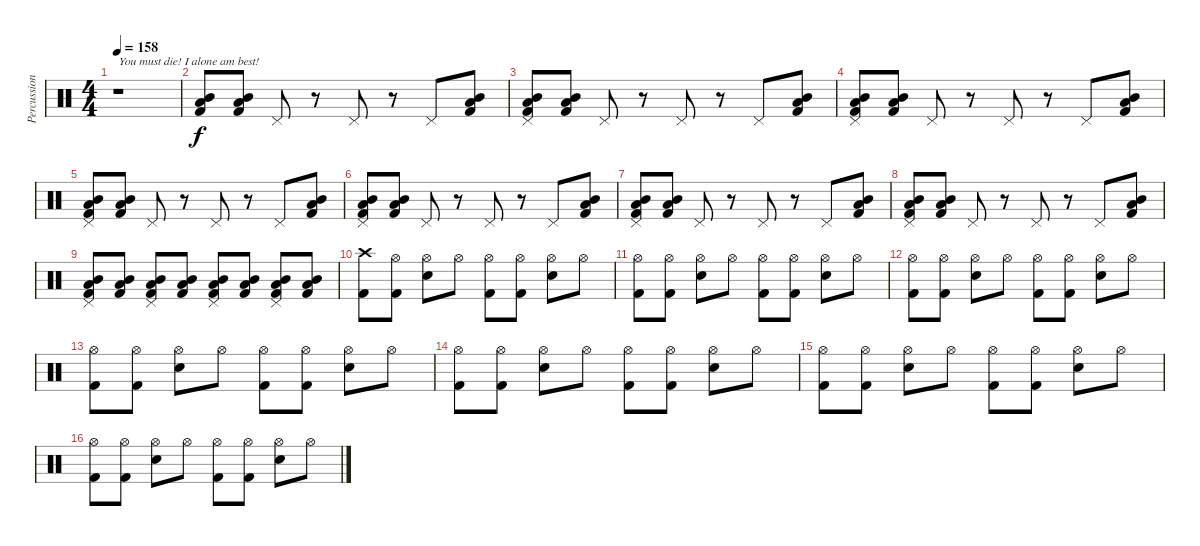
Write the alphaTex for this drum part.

\track ("Percussion" "Percussion") {instrument percussion}
\staff {score}
\articulation defaults
\ts (4 4)
\tempo 158
\clef neutral
\ks c
r.1{txt "You must die! I alone am best!" dy f} |
("Mid Tom (hit)" "Low Floor Tom (hit)" "Kick (hit) 2").8 ("Mid Tom (hit)" "Low Floor Tom (hit)" "Kick (hit) 2").8 "Pedal Hi-Hat (hit)".8 r.8 "Pedal Hi-Hat (hit)".8 r.8 "Pedal Hi-Hat (hit)".8 ("Mid Tom (hit)" "Low Floor Tom (hit)" "Kick (hit) 2").8 |
("Pedal Hi-Hat (hit)" "Mid Tom (hit)" "Low Floor Tom (hit)" "Kick (hit) 2").8 ("Mid Tom (hit)" "Low Floor Tom (hit)" "Kick (hit) 2").8 "Pedal Hi-Hat (hit)".8 r.8 "Pedal Hi-Hat (hit)".8 r.8 "Pedal Hi-Hat (hit)".8 ("Mid Tom (hit)" "Low Floor Tom (hit)" "Kick (hit) 2").8 |
("Pedal Hi-Hat (hit)" "Mid Tom (hit)" "Low Floor Tom (hit)" "Kick (hit) 2").8 ("Mid Tom (hit)" "Low Floor Tom (hit)" "Kick (hit) 2").8 "Pedal Hi-Hat (hit)".8 r.8 "Pedal Hi-Hat (hit)".8 r.8 "Pedal Hi-Hat (hit)".8 ("Mid Tom (hit)" "Low Floor Tom (hit)" "Kick (hit) 2").8 |
("Pedal Hi-Hat (hit)" "Mid Tom (hit)" "Low Floor Tom (hit)" "Kick (hit) 2").8 ("Mid Tom (hit)" "Low Floor Tom (hit)" "Kick (hit) 2").8 "Pedal Hi-Hat (hit)".8 r.8 "Pedal Hi-Hat (hit)".8 r.8 "Pedal Hi-Hat (hit)".8 ("Mid Tom (hit)" "Low Floor Tom (hit)" "Kick (hit) 2").8 |
("Pedal Hi-Hat (hit)" "Mid Tom (hit)" "Low Floor Tom (hit)" "Kick (hit) 2").8 ("Mid Tom (hit)" "Low Floor Tom (hit)" "Kick (hit) 2").8 "Pedal Hi-Hat (hit)".8 r.8 "Pedal Hi-Hat (hit)".8 r.8 "Pedal Hi-Hat (hit)".8 ("Mid Tom (hit)" "Low Floor Tom (hit)" "Kick (hit) 2").8 |
("Pedal Hi-Hat (hit)" "Mid Tom (hit)" "Low Floor Tom (hit)" "Kick (hit) 2").8 ("Mid Tom (hit)" "Low Floor Tom (hit)" "Kick (hit) 2").8 "Pedal Hi-Hat (hit)".8 r.8 "Pedal Hi-Hat (hit)".8 r.8 "Pedal Hi-Hat (hit)".8 ("Mid Tom (hit)" "Low Floor Tom (hit)" "Kick (hit) 2").8 |
("Pedal Hi-Hat (hit)" "Mid Tom (hit)" "Low Floor Tom (hit)" "Kick (hit) 2").8 ("Mid Tom (hit)" "Low Floor Tom (hit)" "Kick (hit) 2").8 "Pedal Hi-Hat (hit)".8 r.8 "Pedal Hi-Hat (hit)".8 r.8 "Pedal Hi-Hat (hit)".8 ("Mid Tom (hit)" "Low Floor Tom (hit)" "Kick (hit) 2").8 |
("Pedal Hi-Hat (hit)" "Mid Tom (hit)" "Low Floor Tom (hit)" "Kick (hit) 2").8 ("Mid Tom (hit)" "Low Floor Tom (hit)" "Kick (hit) 2").8 ("Pedal Hi-Hat (hit)" "Mid Tom (hit)" "Low Floor Tom (hit)" "Kick (hit) 2").8 ("Mid Tom (hit)" "Low Floor Tom (hit)" "Kick (hit) 2").8 ("Pedal Hi-Hat (hit)" "Mid Tom (hit)" "Low Floor Tom (hit)" "Kick (hit) 2").8 ("Mid Tom (hit)" "Low Floor Tom (hit)" "Kick (hit) 2").8 ("Pedal Hi-Hat (hit)" "Mid Tom (hit)" "Low Floor Tom (hit)" "Kick (hit) 2").8 ("Mid Tom (hit)" "Low Floor Tom (hit)" "Kick (hit) 2").8 |
("Crash high (hit)" "Kick (hit) 2").8 ("Hi-Hat (open)" "Kick (hit) 2").8 ("Hi-Hat (open)" "Electric Snare (hit)").8 "Hi-Hat (open)".8 ("Hi-Hat (open)" "Kick (hit) 2").8 ("Hi-Hat (open)" "Kick (hit) 2").8 ("Hi-Hat (open)" "Electric Snare (hit)").8 "Hi-Hat (open)".8 |
("Hi-Hat (open)" "Kick (hit) 2").8 ("Hi-Hat (open)" "Kick (hit) 2").8 ("Hi-Hat (open)" "Electric Snare (hit)").8 "Hi-Hat (open)".8 ("Hi-Hat (open)" "Kick (hit) 2").8 ("Hi-Hat (open)" "Kick (hit) 2").8 ("Hi-Hat (open)" "Electric Snare (hit)").8 "Hi-Hat (open)".8 |
("Hi-Hat (open)" "Kick (hit) 2").8 ("Hi-Hat (open)" "Kick (hit) 2").8 ("Hi-Hat (open)" "Electric Snare (hit)").8 "Hi-Hat (open)".8 ("Hi-Hat (open)" "Kick (hit) 2").8 ("Hi-Hat (open)" "Kick (hit) 2").8 ("Hi-Hat (open)" "Electric Snare (hit)").8 "Hi-Hat (open)".8 |
("Hi-Hat (open)" "Kick (hit) 2").8 ("Hi-Hat (open)" "Kick (hit) 2").8 ("Hi-Hat (open)" "Electric Snare (hit)").8 "Hi-Hat (open)".8 ("Hi-Hat (open)" "Kick (hit) 2").8 ("Hi-Hat (open)" "Kick (hit) 2").8 ("Hi-Hat (open)" "Electric Snare (hit)").8 "Hi-Hat (open)".8 |
("Hi-Hat (open)" "Kick (hit) 2").8 ("Hi-Hat (open)" "Kick (hit) 2").8 ("Hi-Hat (open)" "Electric Snare (hit)").8 "Hi-Hat (open)".8 ("Hi-Hat (open)" "Kick (hit) 2").8 ("Hi-Hat (open)" "Kick (hit) 2").8 ("Hi-Hat (open)" "Electric Snare (hit)").8 "Hi-Hat (open)".8 |
("Hi-Hat (open)" "Kick (hit) 2").8 ("Hi-Hat (open)" "Kick (hit) 2").8 ("Hi-Hat (open)" "Electric Snare (hit)").8 "Hi-Hat (open)".8 ("Hi-Hat (open)" "Kick (hit) 2").8 ("Hi-Hat (open)" "Kick (hit) 2").8 ("Hi-Hat (open)" "Electric Snare (hit)").8 "Hi-Hat (open)".8 |
("Hi-Hat (open)" "Kick (hit) 2").8 ("Hi-Hat (open)" "Kick (hit) 2").8 ("Hi-Hat (open)" "Electric Snare (hit)").8 "Hi-Hat (open)".8 ("Hi-Hat (open)" "Kick (hit) 2").8 ("Hi-Hat (open)" "Kick (hit) 2").8 ("Hi-Hat (open)" "Electric Snare (hit)").8 "Hi-Hat (open)".8
